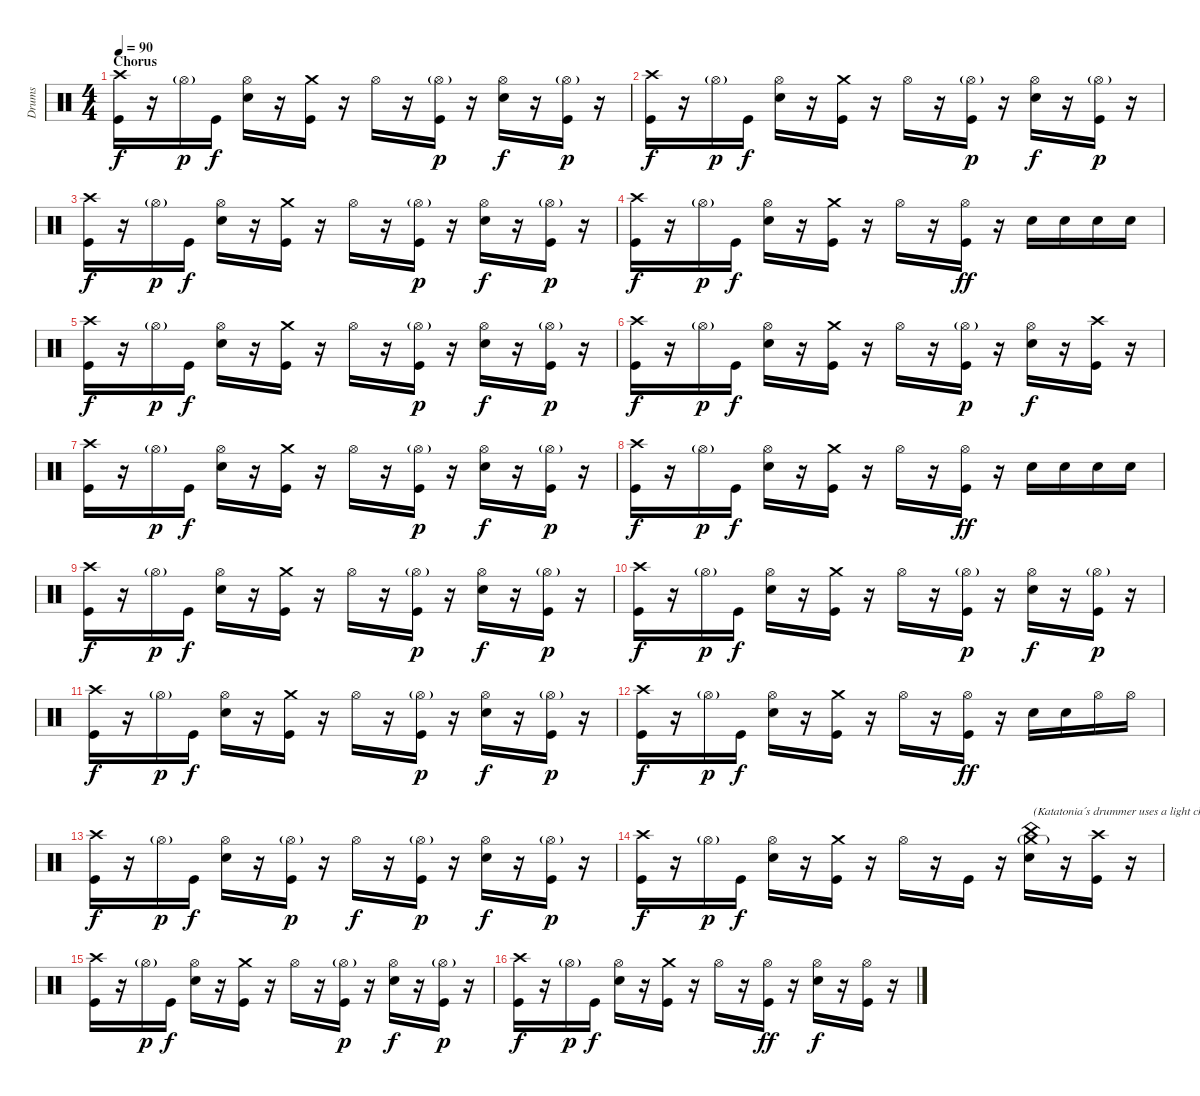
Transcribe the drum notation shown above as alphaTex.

\track ("Drums" "Drums") {instrument percussion}
\staff {score}
\articulation defaults
\ts (4 4)
\section ("" "Chorus")
\tempo 90
\clef neutral
\ks c
("Crash high (hit)" "Kick (hit)").16{dy f} r.16 "Hi-Hat (open)"{g}.16{dy p} "Kick (hit)".16{dy f} ("Hi-Hat (open)" "Snare (hit) 2").16 r.16 ("Crash medium (hit)" "Kick (hit)").16 r.16 "Hi-Hat (open)".16 r.16 ("Hi-Hat (open)"{g} "Kick (hit)").16{dy p} r.16 ("Hi-Hat (open)" "Snare (hit) 2").16{dy f} r.16 ("Hi-Hat (open)"{g} "Kick (hit)").16{dy p} r.16 |
("Crash high (hit)" "Kick (hit)").16{dy f} r.16 "Hi-Hat (open)"{g}.16{dy p} "Kick (hit)".16{dy f} ("Hi-Hat (open)" "Snare (hit) 2").16 r.16 ("Crash medium (hit)" "Kick (hit)").16 r.16 "Hi-Hat (open)".16 r.16 ("Hi-Hat (open)"{g} "Kick (hit)").16{dy p} r.16 ("Hi-Hat (open)" "Snare (hit) 2").16{dy f} r.16 ("Hi-Hat (open)"{g} "Kick (hit)").16{dy p} r.16 |
("Crash high (hit)" "Kick (hit)").16{dy f} r.16 "Hi-Hat (open)"{g}.16{dy p} "Kick (hit)".16{dy f} ("Hi-Hat (open)" "Snare (hit) 2").16 r.16 ("Crash medium (hit)" "Kick (hit)").16 r.16 "Hi-Hat (open)".16 r.16 ("Hi-Hat (open)"{g} "Kick (hit)").16{dy p} r.16 ("Hi-Hat (open)" "Snare (hit) 2").16{dy f} r.16 ("Hi-Hat (open)"{g} "Kick (hit)").16{dy p} r.16 |
("Crash high (hit)" "Kick (hit)").16{dy f} r.16 "Hi-Hat (open)"{g}.16{dy p} "Kick (hit)".16{dy f} ("Hi-Hat (open)" "Snare (hit) 2").16 r.16 ("Crash medium (hit)" "Kick (hit)").16 r.16 "Hi-Hat (open)".16 r.16 ("Hi-Hat (open)" "Kick (hit)").16{dy ff} r.16 "Snare (hit) 2".16 "Snare (hit) 2".16 "Snare (hit) 2".16 "Snare (hit) 2".16 |
("Crash high (hit)" "Kick (hit)").16{dy f} r.16 "Hi-Hat (open)"{g}.16{dy p} "Kick (hit)".16{dy f} ("Hi-Hat (open)" "Snare (hit) 2").16 r.16 ("Crash medium (hit)" "Kick (hit)").16 r.16 "Hi-Hat (open)".16 r.16 ("Hi-Hat (open)"{g} "Kick (hit)").16{dy p} r.16 ("Hi-Hat (open)" "Snare (hit) 2").16{dy f} r.16 ("Hi-Hat (open)"{g} "Kick (hit)").16{dy p} r.16 |
("Crash high (hit)" "Kick (hit)").16{dy f} r.16 "Hi-Hat (open)"{g}.16{dy p} "Kick (hit)".16{dy f} ("Hi-Hat (open)" "Snare (hit) 2").16 r.16 ("Crash medium (hit)" "Kick (hit)").16 r.16 "Hi-Hat (open)".16 r.16 ("Hi-Hat (open)"{g} "Kick (hit)").16{dy p} r.16 ("Hi-Hat (open)" "Snare (hit) 2").16{dy f} r.16 ("Crash high (hit)" "Kick (hit)").16 r.16 |
("Crash high (hit)" "Kick (hit)").16 r.16 "Hi-Hat (open)"{g}.16{dy p} "Kick (hit)".16{dy f} ("Hi-Hat (open)" "Snare (hit) 2").16 r.16 ("Crash medium (hit)" "Kick (hit)").16 r.16 "Hi-Hat (open)".16 r.16 ("Hi-Hat (open)"{g} "Kick (hit)").16{dy p} r.16 ("Hi-Hat (open)" "Snare (hit) 2").16{dy f} r.16 ("Hi-Hat (open)"{g} "Kick (hit)").16{dy p} r.16 |
("Crash high (hit)" "Kick (hit)").16{dy f} r.16 "Hi-Hat (open)"{g}.16{dy p} "Kick (hit)".16{dy f} ("Hi-Hat (open)" "Snare (hit) 2").16 r.16 ("Crash medium (hit)" "Kick (hit)").16 r.16 "Hi-Hat (open)".16 r.16 ("Hi-Hat (open)" "Kick (hit)").16{dy ff} r.16 "Snare (hit) 2".16 "Snare (hit) 2".16 "Snare (hit) 2".16 "Snare (hit) 2".16 |
("Crash high (hit)" "Kick (hit)").16{dy f} r.16 "Hi-Hat (open)"{g}.16{dy p} "Kick (hit)".16{dy f} ("Hi-Hat (open)" "Snare (hit) 2").16 r.16 ("Crash medium (hit)" "Kick (hit)").16 r.16 "Hi-Hat (open)".16 r.16 ("Hi-Hat (open)"{g} "Kick (hit)").16{dy p} r.16 ("Hi-Hat (open)" "Snare (hit) 2").16{dy f} r.16 ("Hi-Hat (open)"{g} "Kick (hit)").16{dy p} r.16 |
("Crash high (hit)" "Kick (hit)").16{dy f} r.16 "Hi-Hat (open)"{g}.16{dy p} "Kick (hit)".16{dy f} ("Hi-Hat (open)" "Snare (hit) 2").16 r.16 ("Crash medium (hit)" "Kick (hit)").16 r.16 "Hi-Hat (open)".16 r.16 ("Hi-Hat (open)"{g} "Kick (hit)").16{dy p} r.16 ("Hi-Hat (open)" "Snare (hit) 2").16{dy f} r.16 ("Hi-Hat (open)"{g} "Kick (hit)").16{dy p} r.16 |
("Crash high (hit)" "Kick (hit)").16{dy f} r.16 "Hi-Hat (open)"{g}.16{dy p} "Kick (hit)".16{dy f} ("Hi-Hat (open)" "Snare (hit) 2").16 r.16 ("Crash medium (hit)" "Kick (hit)").16 r.16 "Hi-Hat (open)".16 r.16 ("Hi-Hat (open)"{g} "Kick (hit)").16{dy p} r.16 ("Hi-Hat (open)" "Snare (hit) 2").16{dy f} r.16 ("Hi-Hat (open)"{g} "Kick (hit)").16{dy p} r.16 |
("Crash high (hit)" "Kick (hit)").16{dy f} r.16 "Hi-Hat (open)"{g}.16{dy p} "Kick (hit)".16{dy f} ("Hi-Hat (open)" "Snare (hit) 2").16 r.16 ("Crash medium (hit)" "Kick (hit)").16 r.16 "Hi-Hat (open)".16 r.16 ("Hi-Hat (open)" "Kick (hit)").16{dy ff} r.16 "Snare (hit) 2".16 "Snare (hit) 2".16 "Hi-Hat (open)".16 "Hi-Hat (open)".16 |
("Crash high (hit)" "Kick (hit)").16{dy f} r.16 "Hi-Hat (open)"{g}.16{dy p} "Kick (hit)".16{dy f} ("Hi-Hat (open)" "Snare (hit) 2").16 r.16 ("Hi-Hat (open)"{g} "Kick (hit)").16{dy p} r.16 "Hi-Hat (open)".16{dy f} r.16 ("Hi-Hat (open)"{g} "Kick (hit)").16{dy p} r.16 ("Hi-Hat (open)" "Snare (hit) 2").16{dy f} r.16 ("Hi-Hat (open)"{g} "Kick (hit)").16{dy p} r.16 |
("Crash high (hit)" "Kick (hit)").16{dy f} r.16 "Hi-Hat (open)"{g}.16{dy p} "Kick (hit)".16{dy f} ("Hi-Hat (open)" "Snare (hit) 2").16 r.16 ("Crash medium (hit)" "Kick (hit)").16 r.16 "Hi-Hat (open)".16 r.16 "Kick (hit)".16 r.16 ("China (hit)" "Crash medium (hit)"{g} "Snare (hit) 2").16{txt "(Katatonia´s drummer uses a light china cymbal)"} r.16 ("Crash high (hit)" "Kick (hit)").16 r.16 |
("Crash high (hit)" "Kick (hit)").16 r.16 "Hi-Hat (open)"{g}.16{dy p} "Kick (hit)".16{dy f} ("Hi-Hat (open)" "Snare (hit) 2").16 r.16 ("Crash medium (hit)" "Kick (hit)").16 r.16 "Hi-Hat (open)".16 r.16 ("Hi-Hat (open)"{g} "Kick (hit)").16{dy p} r.16 ("Hi-Hat (open)" "Snare (hit) 2").16{dy f} r.16 ("Hi-Hat (open)"{g} "Kick (hit)").16{dy p} r.16 |
("Crash high (hit)" "Kick (hit)").16{dy f} r.16 "Hi-Hat (open)"{g}.16{dy p} "Kick (hit)".16{dy f} ("Hi-Hat (open)" "Snare (hit) 2").16 r.16 ("Crash medium (hit)" "Kick (hit)").16 r.16 "Hi-Hat (open)".16 r.16 ("Hi-Hat (open)" "Kick (hit)").16{dy ff} r.16 ("Hi-Hat (open)" "Snare (hit) 2").16{dy f} r.16 ("Hi-Hat (open)" "Kick (hit)").16 r.16
